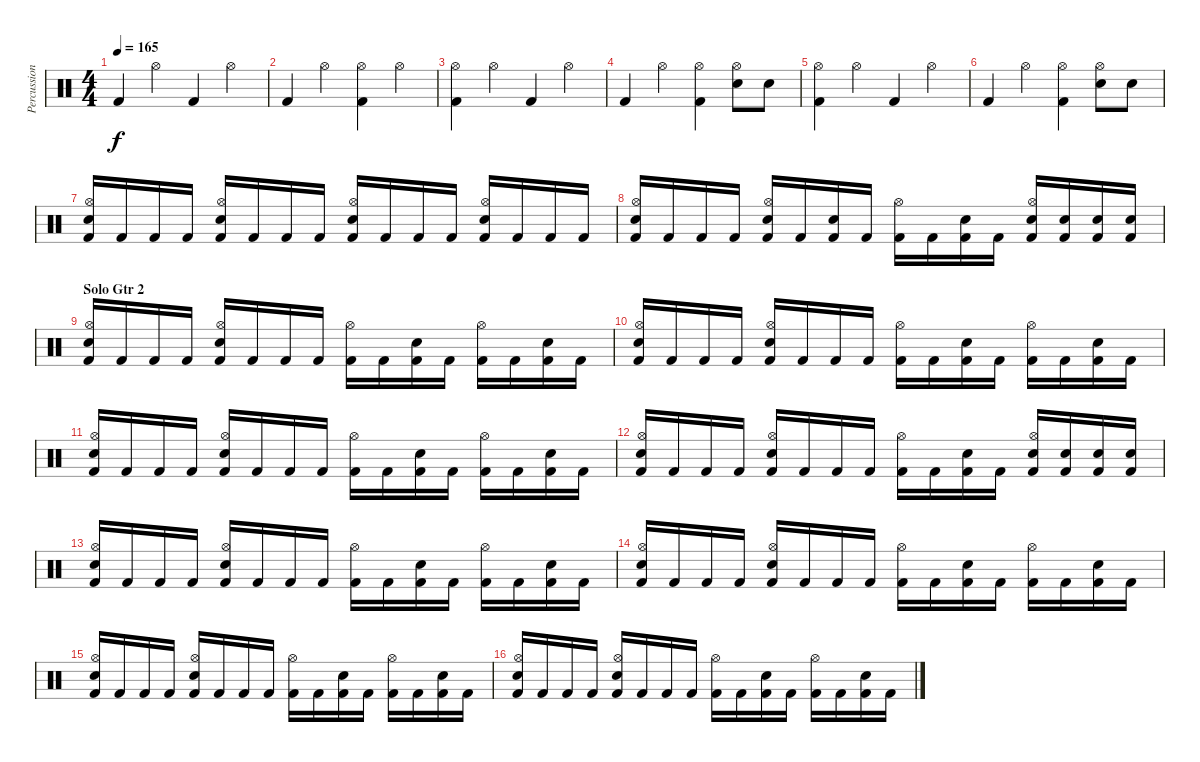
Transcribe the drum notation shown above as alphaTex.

\track ("Percussion" "Percussion") {instrument percussion}
\staff {score}
\articulation defaults
\ts (4 4)
\tempo 165
\clef neutral
\ks c "Kick (hit) 2".4{dy f} "Hi-Hat (open)".4 "Kick (hit) 2".4 "Hi-Hat (open)".4
|
"Kick (hit) 2".4 "Hi-Hat (open)".4 ("Hi-Hat (open)" "Kick (hit) 2").4 "Hi-Hat (open)".4 |
("Hi-Hat (open)" "Kick (hit) 2").4 "Hi-Hat (open)".4 "Kick (hit) 2".4 "Hi-Hat (open)".4 |
"Kick (hit) 2".4 "Hi-Hat (open)".4 ("Hi-Hat (open)" "Kick (hit) 2").4 ("Hi-Hat (open)" "Snare (hit) 2").8 "Snare (hit) 2".8 |
("Hi-Hat (open)" "Kick (hit) 2").4 "Hi-Hat (open)".4 "Kick (hit) 2".4 "Hi-Hat (open)".4 |
"Kick (hit) 2".4 "Hi-Hat (open)".4 ("Hi-Hat (open)" "Kick (hit) 2").4 ("Hi-Hat (open)" "Snare (hit) 2").8 "Snare (hit) 2".8 |
("Hi-Hat (open)" "Snare (hit) 2" "Kick (hit) 2").16 "Kick (hit) 2".16 "Kick (hit) 2".16 "Kick (hit) 2".16 ("Hi-Hat (open)" "Snare (hit) 2" "Kick (hit) 2").16 "Kick (hit) 2".16 "Kick (hit) 2".16 "Kick (hit) 2".16 ("Hi-Hat (open)" "Snare (hit) 2" "Kick (hit) 2").16 "Kick (hit) 2".16 "Kick (hit) 2".16 "Kick (hit) 2".16 ("Hi-Hat (open)" "Snare (hit) 2" "Kick (hit) 2").16 "Kick (hit) 2".16 "Kick (hit) 2".16 "Kick (hit) 2".16 |
("Hi-Hat (open)" "Snare (hit) 2" "Kick (hit) 2").16 "Kick (hit) 2".16 "Kick (hit) 2".16 "Kick (hit) 2".16 ("Hi-Hat (open)" "Snare (hit) 2" "Kick (hit) 2").16 "Kick (hit) 2".16 ("Snare (hit) 2" "Kick (hit) 2").16 "Kick (hit) 2".16 ("Hi-Hat (open)" "Kick (hit) 2").16 "Kick (hit) 2".16 ("Snare (hit) 2" "Kick (hit) 2").16 "Kick (hit) 2".16 ("Hi-Hat (open)" "Snare (hit) 2" "Kick (hit) 2").16 ("Snare (hit) 2" "Kick (hit) 2").16 ("Snare (hit) 2" "Kick (hit) 2").16 ("Snare (hit) 2" "Kick (hit) 2").16 |
\section ("" "Solo Gtr 2")
("Hi-Hat (open)" "Snare (hit) 2" "Kick (hit) 2").16 "Kick (hit) 2".16 "Kick (hit) 2".16 "Kick (hit) 2".16 ("Hi-Hat (open)" "Snare (hit) 2" "Kick (hit) 2").16 "Kick (hit) 2".16 "Kick (hit) 2".16 "Kick (hit) 2".16 ("Hi-Hat (open)" "Kick (hit) 2").16 "Kick (hit) 2".16 ("Snare (hit) 2" "Kick (hit) 2").16 "Kick (hit) 2".16 ("Hi-Hat (open)" "Kick (hit) 2").16 "Kick (hit) 2".16 ("Snare (hit) 2" "Kick (hit) 2").16 "Kick (hit) 2".16 |
("Hi-Hat (open)" "Snare (hit) 2" "Kick (hit) 2").16 "Kick (hit) 2".16 "Kick (hit) 2".16 "Kick (hit) 2".16 ("Hi-Hat (open)" "Snare (hit) 2" "Kick (hit) 2").16 "Kick (hit) 2".16 "Kick (hit) 2".16 "Kick (hit) 2".16 ("Hi-Hat (open)" "Kick (hit) 2").16 "Kick (hit) 2".16 ("Snare (hit) 2" "Kick (hit) 2").16 "Kick (hit) 2".16 ("Hi-Hat (open)" "Kick (hit) 2").16 "Kick (hit) 2".16 ("Snare (hit) 2" "Kick (hit) 2").16 "Kick (hit) 2".16 |
("Hi-Hat (open)" "Snare (hit) 2" "Kick (hit) 2").16 "Kick (hit) 2".16 "Kick (hit) 2".16 "Kick (hit) 2".16 ("Hi-Hat (open)" "Snare (hit) 2" "Kick (hit) 2").16 "Kick (hit) 2".16 "Kick (hit) 2".16 "Kick (hit) 2".16 ("Hi-Hat (open)" "Kick (hit) 2").16 "Kick (hit) 2".16 ("Snare (hit) 2" "Kick (hit) 2").16 "Kick (hit) 2".16 ("Hi-Hat (open)" "Kick (hit) 2").16 "Kick (hit) 2".16 ("Snare (hit) 2" "Kick (hit) 2").16 "Kick (hit) 2".16 |
("Hi-Hat (open)" "Snare (hit) 2" "Kick (hit) 2").16 "Kick (hit) 2".16 "Kick (hit) 2".16 "Kick (hit) 2".16 ("Hi-Hat (open)" "Snare (hit) 2" "Kick (hit) 2").16 "Kick (hit) 2".16 "Kick (hit) 2".16 "Kick (hit) 2".16 ("Hi-Hat (open)" "Kick (hit) 2").16 "Kick (hit) 2".16 ("Snare (hit) 2" "Kick (hit) 2").16 "Kick (hit) 2".16 ("Hi-Hat (open)" "Snare (hit) 2" "Kick (hit) 2").16 ("Snare (hit) 2" "Kick (hit) 2").16 ("Snare (hit) 2" "Kick (hit) 2").16 ("Snare (hit) 2" "Kick (hit) 2").16 |
("Hi-Hat (open)" "Snare (hit) 2" "Kick (hit) 2").16 "Kick (hit) 2".16 "Kick (hit) 2".16 "Kick (hit) 2".16 ("Hi-Hat (open)" "Snare (hit) 2" "Kick (hit) 2").16 "Kick (hit) 2".16 "Kick (hit) 2".16 "Kick (hit) 2".16 ("Hi-Hat (open)" "Kick (hit) 2").16 "Kick (hit) 2".16 ("Snare (hit) 2" "Kick (hit) 2").16 "Kick (hit) 2".16 ("Hi-Hat (open)" "Kick (hit) 2").16 "Kick (hit) 2".16 ("Snare (hit) 2" "Kick (hit) 2").16 "Kick (hit) 2".16 |
("Hi-Hat (open)" "Snare (hit) 2" "Kick (hit) 2").16 "Kick (hit) 2".16 "Kick (hit) 2".16 "Kick (hit) 2".16 ("Hi-Hat (open)" "Snare (hit) 2" "Kick (hit) 2").16 "Kick (hit) 2".16 "Kick (hit) 2".16 "Kick (hit) 2".16 ("Hi-Hat (open)" "Kick (hit) 2").16 "Kick (hit) 2".16 ("Snare (hit) 2" "Kick (hit) 2").16 "Kick (hit) 2".16 ("Hi-Hat (open)" "Kick (hit) 2").16 "Kick (hit) 2".16 ("Snare (hit) 2" "Kick (hit) 2").16 "Kick (hit) 2".16 |
("Hi-Hat (open)" "Snare (hit) 2" "Kick (hit) 2").16 "Kick (hit) 2".16 "Kick (hit) 2".16 "Kick (hit) 2".16 ("Hi-Hat (open)" "Snare (hit) 2" "Kick (hit) 2").16 "Kick (hit) 2".16 "Kick (hit) 2".16 "Kick (hit) 2".16 ("Hi-Hat (open)" "Kick (hit) 2").16 "Kick (hit) 2".16 ("Snare (hit) 2" "Kick (hit) 2").16 "Kick (hit) 2".16 ("Hi-Hat (open)" "Kick (hit) 2").16 "Kick (hit) 2".16 ("Snare (hit) 2" "Kick (hit) 2").16 "Kick (hit) 2".16 |
("Hi-Hat (open)" "Snare (hit) 2" "Kick (hit) 2").16 "Kick (hit) 2".16 "Kick (hit) 2".16 "Kick (hit) 2".16 ("Hi-Hat (open)" "Snare (hit) 2" "Kick (hit) 2").16 "Kick (hit) 2".16 "Kick (hit) 2".16 "Kick (hit) 2".16 ("Hi-Hat (open)" "Kick (hit) 2").16 "Kick (hit) 2".16 ("Snare (hit) 2" "Kick (hit) 2").16 "Kick (hit) 2".16 ("Hi-Hat (open)" "Kick (hit) 2").16 "Kick (hit) 2".16 ("Snare (hit) 2" "Kick (hit) 2").16 "Kick (hit) 2".16
